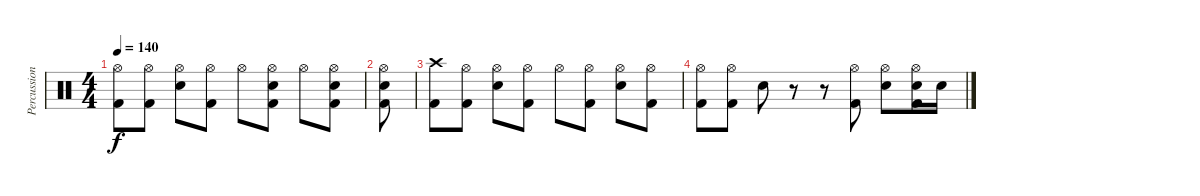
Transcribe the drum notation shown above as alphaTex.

\track ("Percussion" "Percussion") {instrument percussion}
\staff {score}
\articulation defaults
\ts (4 4)
\tempo 140
\clef neutral
\ks c
("Hi-Hat (open)" "Kick (hit) 2").8{dy f} ("Hi-Hat (open)" "Kick (hit) 2").8 ("Hi-Hat (open)" "Electric Snare (hit)").8 ("Hi-Hat (open)" "Kick (hit) 2").8 "Hi-Hat (open)".8 ("Hi-Hat (open)" "Electric Snare (hit)" "Kick (hit) 2").8 "Hi-Hat (open)".8 ("Hi-Hat (open)" "Electric Snare (hit)" "Kick (hit) 2").8 |
("Hi-Hat (open)" "Electric Snare (hit)" "Kick (hit) 2").8 |
("Crash high (hit)" "Kick (hit) 2").8 ("Hi-Hat (open)" "Kick (hit) 2").8 ("Hi-Hat (open)" "Electric Snare (hit)").8 ("Hi-Hat (open)" "Kick (hit) 2").8 "Hi-Hat (open)".8 ("Hi-Hat (open)" "Kick (hit) 2").8 ("Hi-Hat (open)" "Electric Snare (hit)").8 ("Hi-Hat (open)" "Kick (hit) 2").8 |
("Hi-Hat (open)" "Kick (hit) 2").8 ("Hi-Hat (open)" "Kick (hit) 2").8 "Electric Snare (hit)".8 r.8 r.8 ("Hi-Hat (open)" "Kick (hit) 2").8 ("Hi-Hat (open)" "Electric Snare (hit)").8 ("Hi-Hat (open)" "Electric Snare (hit)" "Kick (hit) 2").16 "Electric Snare (hit)".16
